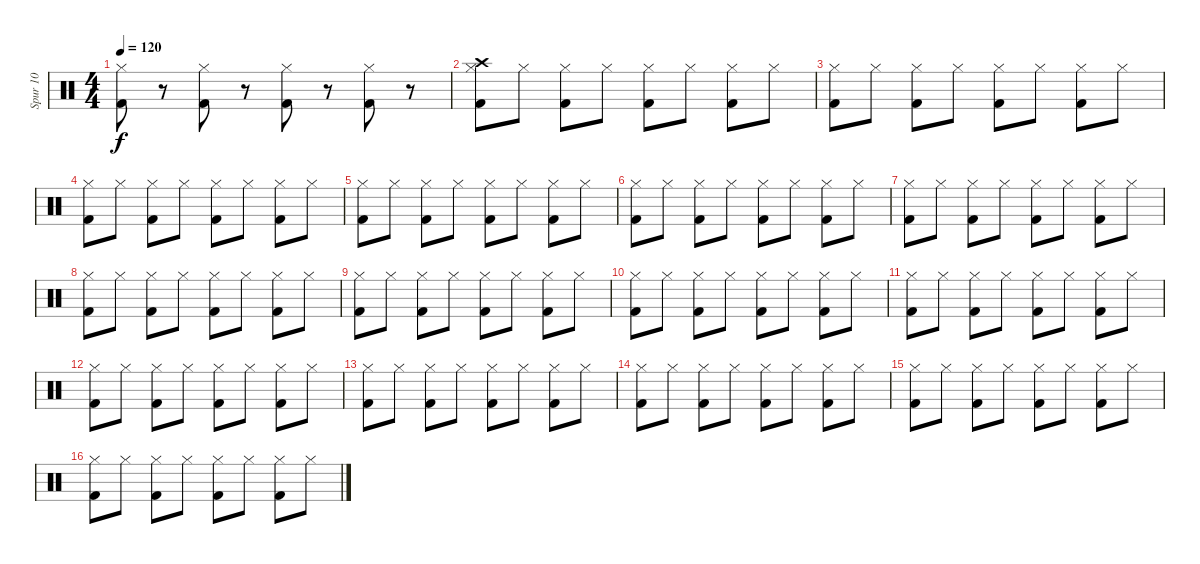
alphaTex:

\track ("Spur 10" "Spur 10") {instrument percussion}
\staff {score}
\articulation defaults
\ts (4 4)
\tempo 120
\clef neutral
\ks c
("Hi-Hat (closed)" "Kick (hit) 2").8{dy f} r.8 ("Hi-Hat (closed)" "Kick (hit) 2").8 r.8 ("Hi-Hat (closed)" "Kick (hit) 2").8 r.8 ("Hi-Hat (closed)" "Kick (hit) 2").8 r.8 |
("Hi-Hat (closed)" "Kick (hit) 2" "Crash high (hit)").8 "Hi-Hat (closed)".8 ("Hi-Hat (closed)" "Kick (hit) 2").8 "Hi-Hat (closed)".8 ("Hi-Hat (closed)" "Kick (hit) 2").8 "Hi-Hat (closed)".8 ("Hi-Hat (closed)" "Kick (hit) 2").8 "Hi-Hat (closed)".8 |
("Hi-Hat (closed)" "Kick (hit) 2").8 "Hi-Hat (closed)".8 ("Hi-Hat (closed)" "Kick (hit) 2").8 "Hi-Hat (closed)".8 ("Hi-Hat (closed)" "Kick (hit) 2").8 "Hi-Hat (closed)".8 ("Hi-Hat (closed)" "Kick (hit) 2").8 "Hi-Hat (closed)".8 |
("Hi-Hat (closed)" "Kick (hit) 2").8 "Hi-Hat (closed)".8 ("Hi-Hat (closed)" "Kick (hit) 2").8 "Hi-Hat (closed)".8 ("Hi-Hat (closed)" "Kick (hit) 2").8 "Hi-Hat (closed)".8 ("Hi-Hat (closed)" "Kick (hit) 2").8 "Hi-Hat (closed)".8 |
("Hi-Hat (closed)" "Kick (hit) 2").8 "Hi-Hat (closed)".8 ("Hi-Hat (closed)" "Kick (hit) 2").8 "Hi-Hat (closed)".8 ("Hi-Hat (closed)" "Kick (hit) 2").8 "Hi-Hat (closed)".8 ("Hi-Hat (closed)" "Kick (hit) 2").8 "Hi-Hat (closed)".8 |
("Hi-Hat (closed)" "Kick (hit) 2").8 "Hi-Hat (closed)".8 ("Hi-Hat (closed)" "Kick (hit) 2").8 "Hi-Hat (closed)".8 ("Hi-Hat (closed)" "Kick (hit) 2").8 "Hi-Hat (closed)".8 ("Hi-Hat (closed)" "Kick (hit) 2").8 "Hi-Hat (closed)".8 |
("Hi-Hat (closed)" "Kick (hit) 2").8 "Hi-Hat (closed)".8 ("Hi-Hat (closed)" "Kick (hit) 2").8 "Hi-Hat (closed)".8 ("Hi-Hat (closed)" "Kick (hit) 2").8 "Hi-Hat (closed)".8 ("Hi-Hat (closed)" "Kick (hit) 2").8 "Hi-Hat (closed)".8 |
("Hi-Hat (closed)" "Kick (hit) 2").8 "Hi-Hat (closed)".8 ("Hi-Hat (closed)" "Kick (hit) 2").8 "Hi-Hat (closed)".8 ("Hi-Hat (closed)" "Kick (hit) 2").8 "Hi-Hat (closed)".8 ("Hi-Hat (closed)" "Kick (hit) 2").8 "Hi-Hat (closed)".8 |
("Hi-Hat (closed)" "Kick (hit) 2").8 "Hi-Hat (closed)".8 ("Hi-Hat (closed)" "Kick (hit) 2").8 "Hi-Hat (closed)".8 ("Hi-Hat (closed)" "Kick (hit) 2").8 "Hi-Hat (closed)".8 ("Hi-Hat (closed)" "Kick (hit) 2").8 "Hi-Hat (closed)".8 |
("Hi-Hat (closed)" "Kick (hit) 2").8 "Hi-Hat (closed)".8 ("Hi-Hat (closed)" "Kick (hit) 2").8 "Hi-Hat (closed)".8 ("Hi-Hat (closed)" "Kick (hit) 2").8 "Hi-Hat (closed)".8 ("Hi-Hat (closed)" "Kick (hit) 2").8 "Hi-Hat (closed)".8 |
("Hi-Hat (closed)" "Kick (hit) 2").8 "Hi-Hat (closed)".8 ("Hi-Hat (closed)" "Kick (hit) 2").8 "Hi-Hat (closed)".8 ("Hi-Hat (closed)" "Kick (hit) 2").8 "Hi-Hat (closed)".8 ("Hi-Hat (closed)" "Kick (hit) 2").8 "Hi-Hat (closed)".8 |
("Hi-Hat (closed)" "Kick (hit) 2").8 "Hi-Hat (closed)".8 ("Hi-Hat (closed)" "Kick (hit) 2").8 "Hi-Hat (closed)".8 ("Hi-Hat (closed)" "Kick (hit) 2").8 "Hi-Hat (closed)".8 ("Hi-Hat (closed)" "Kick (hit) 2").8 "Hi-Hat (closed)".8 |
("Hi-Hat (closed)" "Kick (hit) 2").8 "Hi-Hat (closed)".8 ("Hi-Hat (closed)" "Kick (hit) 2").8 "Hi-Hat (closed)".8 ("Hi-Hat (closed)" "Kick (hit) 2").8 "Hi-Hat (closed)".8 ("Hi-Hat (closed)" "Kick (hit) 2").8 "Hi-Hat (closed)".8 |
("Hi-Hat (closed)" "Kick (hit) 2").8 "Hi-Hat (closed)".8 ("Hi-Hat (closed)" "Kick (hit) 2").8 "Hi-Hat (closed)".8 ("Hi-Hat (closed)" "Kick (hit) 2").8 "Hi-Hat (closed)".8 ("Hi-Hat (closed)" "Kick (hit) 2").8 "Hi-Hat (closed)".8 |
("Hi-Hat (closed)" "Kick (hit) 2").8 "Hi-Hat (closed)".8 ("Hi-Hat (closed)" "Kick (hit) 2").8 "Hi-Hat (closed)".8 ("Hi-Hat (closed)" "Kick (hit) 2").8 "Hi-Hat (closed)".8 ("Hi-Hat (closed)" "Kick (hit) 2").8 "Hi-Hat (closed)".8 |
("Hi-Hat (closed)" "Kick (hit) 2").8 "Hi-Hat (closed)".8 ("Hi-Hat (closed)" "Kick (hit) 2").8 "Hi-Hat (closed)".8 ("Hi-Hat (closed)" "Kick (hit) 2").8 "Hi-Hat (closed)".8 ("Hi-Hat (closed)" "Kick (hit) 2").8 "Hi-Hat (closed)".8
